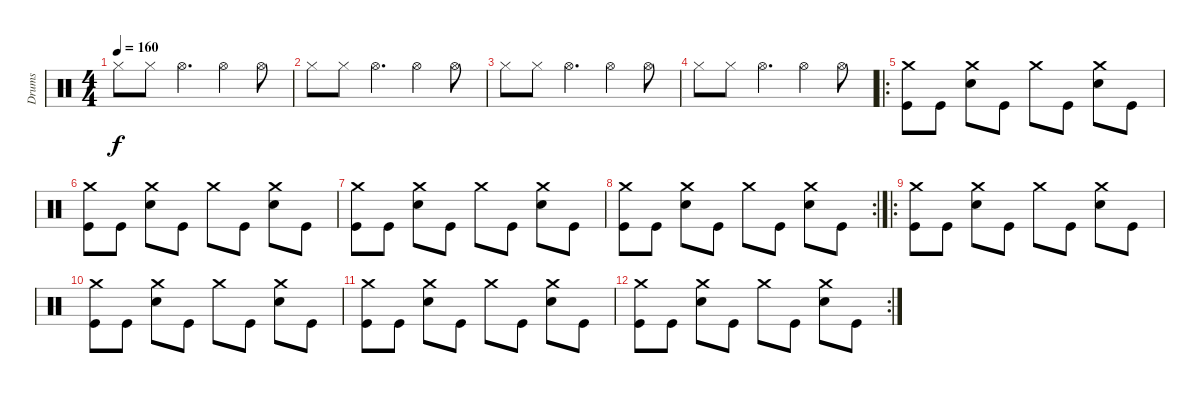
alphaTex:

\track ("Drums" "Drums") {instrument percussion}
\staff {score}
\articulation defaults
\ts (4 4)
\tempo 160
\clef neutral
\ks c "Hi-Hat (closed)".8{dy f} "Hi-Hat (closed)".8 "Hi-Hat (open)".4{d} "Hi-Hat (open)".4 "Hi-Hat (open)".8
|
"Hi-Hat (closed)".8 "Hi-Hat (closed)".8 "Hi-Hat (open)".4{d} "Hi-Hat (open)".4 "Hi-Hat (open)".8 |
"Hi-Hat (closed)".8 "Hi-Hat (closed)".8 "Hi-Hat (open)".4{d} "Hi-Hat (open)".4 "Hi-Hat (open)".8 |
"Hi-Hat (closed)".8 "Hi-Hat (closed)".8 "Hi-Hat (open)".4{d} "Hi-Hat (open)".4 "Hi-Hat (open)".8 |
\ro
("Crash medium (hit)" "Kick (hit)").8 "Kick (hit)".8 ("Crash medium (hit)" "Snare (hit) 2").8 "Kick (hit)".8 "Crash medium (hit)".8 "Kick (hit)".8 ("Crash medium (hit)" "Snare (hit) 2").8 "Kick (hit)".8 |
("Crash medium (hit)" "Kick (hit)").8 "Kick (hit)".8 ("Crash medium (hit)" "Snare (hit) 2").8 "Kick (hit)".8 "Crash medium (hit)".8 "Kick (hit)".8 ("Crash medium (hit)" "Snare (hit) 2").8 "Kick (hit)".8 |
("Crash medium (hit)" "Kick (hit)").8 "Kick (hit)".8 ("Crash medium (hit)" "Snare (hit) 2").8 "Kick (hit)".8 "Crash medium (hit)".8 "Kick (hit)".8 ("Crash medium (hit)" "Snare (hit) 2").8 "Kick (hit)".8 |
\rc 2
("Crash medium (hit)" "Kick (hit)").8 "Kick (hit)".8 ("Crash medium (hit)" "Snare (hit) 2").8 "Kick (hit)".8 "Crash medium (hit)".8 "Kick (hit)".8 ("Crash medium (hit)" "Snare (hit) 2").8 "Kick (hit)".8 |
\ro
("Crash medium (hit)" "Kick (hit)").8 "Kick (hit)".8 ("Crash medium (hit)" "Snare (hit) 2").8 "Kick (hit)".8 "Crash medium (hit)".8 "Kick (hit)".8 ("Crash medium (hit)" "Snare (hit) 2").8 "Kick (hit)".8 |
("Crash medium (hit)" "Kick (hit)").8 "Kick (hit)".8 ("Crash medium (hit)" "Snare (hit) 2").8 "Kick (hit)".8 "Crash medium (hit)".8 "Kick (hit)".8 ("Crash medium (hit)" "Snare (hit) 2").8 "Kick (hit)".8 |
("Crash medium (hit)" "Kick (hit)").8 "Kick (hit)".8 ("Crash medium (hit)" "Snare (hit) 2").8 "Kick (hit)".8 "Crash medium (hit)".8 "Kick (hit)".8 ("Crash medium (hit)" "Snare (hit) 2").8 "Kick (hit)".8 |
\rc 2
("Crash medium (hit)" "Kick (hit)").8 "Kick (hit)".8 ("Crash medium (hit)" "Snare (hit) 2").8 "Kick (hit)".8 "Crash medium (hit)".8 "Kick (hit)".8 ("Crash medium (hit)" "Snare (hit) 2").8 "Kick (hit)".8
